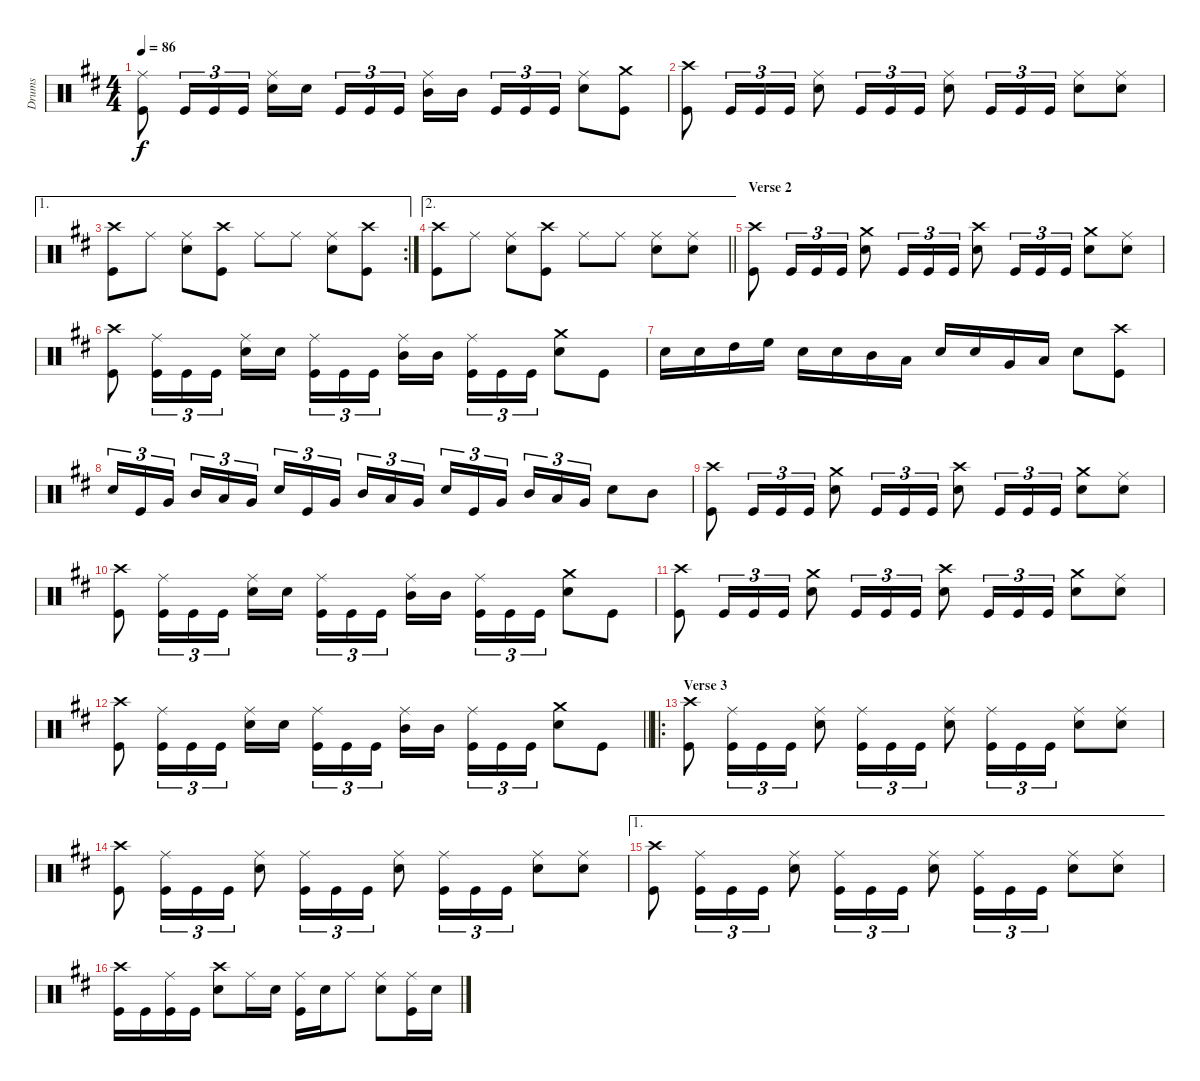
\track ("Drums" "Drums") {instrument percussion}
\staff {score}
\articulation defaults
\ts (4 4)
\tempo 86
\clef neutral
\ks bminor
("Ride (middle)" "Kick (hit)").8{dy f} "Kick (hit)".16{tu (3 2)} "Kick (hit)".16{tu (3 2)} "Kick (hit)".16{tu (3 2)} ("Ride (middle)" "Snare (hit) 2").16 "Snare (hit) 2".16{beam splitsecondary} "Kick (hit)".16{tu (3 2)} "Kick (hit)".16{tu (3 2)} "Kick (hit)".16{tu (3 2)} ("Ride (middle)" "Mid Tom (hit)").16 "Mid Tom (hit)".16{beam splitsecondary} "Kick (hit)".16{tu (3 2)} "Kick (hit)".16{tu (3 2)} "Kick (hit)".16{tu (3 2)} ("Ride (middle)" "Snare (hit) 2").8 ("Crash medium (hit)" "Kick (hit)").8 |
("Crash high (hit)" "Kick (hit)").8 "Kick (hit)".16{tu (3 2)} "Kick (hit)".16{tu (3 2)} "Kick (hit)".16{tu (3 2)} ("Ride (middle)" "Snare (hit) 2").8 "Kick (hit)".16{tu (3 2)} "Kick (hit)".16{tu (3 2)} "Kick (hit)".16{tu (3 2)} ("Ride (middle)" "Snare (hit) 2").8 "Kick (hit)".16{tu (3 2)} "Kick (hit)".16{tu (3 2)} "Kick (hit)".16{tu (3 2)} ("Ride (middle)" "Snare (hit) 2").8 ("Ride (middle)" "Snare (hit) 2").8 |
\ae 1
\rc 2
("Crash high (hit)" "Kick (hit)").8 "Ride (middle)".8 ("Ride (middle)" "Snare (hit) 2").8 ("Crash high (hit)" "Kick (hit)").8 "Ride (middle)".8 "Ride (middle)".8 ("Ride (middle)" "Snare (hit) 2").8 ("Crash high (hit)" "Kick (hit)").8 |
\ae 2
\barLineRight lightlight
("Crash high (hit)" "Kick (hit)").8 "Ride (middle)".8 ("Ride (middle)" "Snare (hit) 2").8 ("Crash high (hit)" "Kick (hit)").8 "Ride (middle)".8 "Ride (middle)".8 ("Ride (middle)" "Snare (hit) 2").8 ("Ride (middle)" "Snare (hit) 2").8 |
\section ("" "Verse 2")
("Crash high (hit)" "Kick (hit)").8 "Kick (hit)".16{tu (3 2)} "Kick (hit)".16{tu (3 2)} "Kick (hit)".16{tu (3 2)} ("Crash medium (hit)" "Snare (hit) 2").8 "Kick (hit)".16{tu (3 2)} "Kick (hit)".16{tu (3 2)} "Kick (hit)".16{tu (3 2)} ("Crash high (hit)" "Snare (hit) 2").8 "Kick (hit)".16{tu (3 2)} "Kick (hit)".16{tu (3 2)} "Kick (hit)".16{tu (3 2)} ("Crash medium (hit)" "Snare (hit) 2").8 ("Ride (middle)" "Snare (hit) 2").8 |
("Crash high (hit)" "Kick (hit)").8 ("Ride (middle)" "Kick (hit)").16{tu (3 2)} "Kick (hit)".16{tu (3 2)} "Kick (hit)".16{tu (3 2)} ("Ride (middle)" "Snare (hit) 2").16 "Snare (hit) 2".16{beam splitsecondary} ("Ride (middle)" "Kick (hit)").16{tu (3 2)} "Kick (hit)".16{tu (3 2)} "Kick (hit)".16{tu (3 2)} ("Ride (middle)" "Mid Tom (hit)").16 "Mid Tom (hit)".16{beam splitsecondary} ("Ride (middle)" "Kick (hit)").16{tu (3 2)} "Kick (hit)".16{tu (3 2)} "Kick (hit)".16{tu (3 2)} ("Crash medium (hit)" "Snare (hit) 2").8 "Kick (hit)".8 |
"Snare (hit) 2".16 "Snare (hit) 2".16 "High Tom (hit)".16 "High Floor Tom (hit)".16 "Snare (hit) 2".16 "Snare (hit) 2".16 "Mid Tom (hit)".16 "Low Tom (hit)".16 "Snare (hit) 2".16 "Snare (hit) 2".16 "Very Low Tom (hit)".16 "Low Floor Tom (hit)".16 "Snare (hit) 2".8 ("Crash high (hit)" "Kick (hit)").8 |
"Snare (hit) 2".16{tu (3 2)} "Kick (hit)".16{tu (3 2)} "Very Low Tom (hit)".16{tu (3 2) beam splitsecondary} "Mid Tom (hit)".16{tu (3 2)} "Low Tom (hit)".16{tu (3 2)} "Very Low Tom (hit)".16{tu (3 2)} "Snare (hit) 2".16{tu (3 2)} "Kick (hit)".16{tu (3 2)} "Very Low Tom (hit)".16{tu (3 2) beam splitsecondary} "Mid Tom (hit)".16{tu (3 2)} "Low Tom (hit)".16{tu (3 2)} "Very Low Tom (hit)".16{tu (3 2)} "Snare (hit) 2".16{tu (3 2)} "Kick (hit)".16{tu (3 2)} "Very Low Tom (hit)".16{tu (3 2) beam splitsecondary} "Mid Tom (hit)".16{tu (3 2)} "Low Tom (hit)".16{tu (3 2)} "Very Low Tom (hit)".16{tu (3 2)} "Snare (hit) 2".8 "Mid Tom (hit)".8 |
("Crash high (hit)" "Kick (hit)").8 "Kick (hit)".16{tu (3 2)} "Kick (hit)".16{tu (3 2)} "Kick (hit)".16{tu (3 2)} ("Crash medium (hit)" "Snare (hit) 2").8 "Kick (hit)".16{tu (3 2)} "Kick (hit)".16{tu (3 2)} "Kick (hit)".16{tu (3 2)} ("Crash high (hit)" "Snare (hit) 2").8 "Kick (hit)".16{tu (3 2)} "Kick (hit)".16{tu (3 2)} "Kick (hit)".16{tu (3 2)} ("Crash medium (hit)" "Snare (hit) 2").8 ("Ride (middle)" "Snare (hit) 2").8 |
("Crash high (hit)" "Kick (hit)").8 ("Ride (middle)" "Kick (hit)").16{tu (3 2)} "Kick (hit)".16{tu (3 2)} "Kick (hit)".16{tu (3 2)} ("Ride (middle)" "Snare (hit) 2").16 "Snare (hit) 2".16{beam splitsecondary} ("Ride (middle)" "Kick (hit)").16{tu (3 2)} "Kick (hit)".16{tu (3 2)} "Kick (hit)".16{tu (3 2)} ("Ride (middle)" "Mid Tom (hit)").16 "Mid Tom (hit)".16{beam splitsecondary} ("Ride (middle)" "Kick (hit)").16{tu (3 2)} "Kick (hit)".16{tu (3 2)} "Kick (hit)".16{tu (3 2)} ("Crash medium (hit)" "Snare (hit) 2").8 "Kick (hit)".8 |
("Crash high (hit)" "Kick (hit)").8 "Kick (hit)".16{tu (3 2)} "Kick (hit)".16{tu (3 2)} "Kick (hit)".16{tu (3 2)} ("Crash medium (hit)" "Snare (hit) 2").8 "Kick (hit)".16{tu (3 2)} "Kick (hit)".16{tu (3 2)} "Kick (hit)".16{tu (3 2)} ("Crash high (hit)" "Snare (hit) 2").8 "Kick (hit)".16{tu (3 2)} "Kick (hit)".16{tu (3 2)} "Kick (hit)".16{tu (3 2)} ("Crash medium (hit)" "Snare (hit) 2").8 ("Ride (middle)" "Snare (hit) 2").8 |
\barLineRight lightlight
("Crash high (hit)" "Kick (hit)").8 ("Ride (middle)" "Kick (hit)").16{tu (3 2)} "Kick (hit)".16{tu (3 2)} "Kick (hit)".16{tu (3 2)} ("Ride (middle)" "Snare (hit) 2").16 "Snare (hit) 2".16{beam splitsecondary} ("Ride (middle)" "Kick (hit)").16{tu (3 2)} "Kick (hit)".16{tu (3 2)} "Kick (hit)".16{tu (3 2)} ("Ride (middle)" "Mid Tom (hit)").16 "Mid Tom (hit)".16{beam splitsecondary} ("Ride (middle)" "Kick (hit)").16{tu (3 2)} "Kick (hit)".16{tu (3 2)} "Kick (hit)".16{tu (3 2)} ("Crash medium (hit)" "Snare (hit) 2").8 "Kick (hit)".8 |
\ro
\section ("" "Verse 3")
("Crash high (hit)" "Kick (hit)").8 ("Ride (middle)" "Kick (hit)").16{tu (3 2)} "Kick (hit)".16{tu (3 2)} "Kick (hit)".16{tu (3 2)} ("Ride (middle)" "Snare (hit) 2").8 ("Ride (middle)" "Kick (hit)").16{tu (3 2)} "Kick (hit)".16{tu (3 2)} "Kick (hit)".16{tu (3 2)} ("Ride (middle)" "Snare (hit) 2").8 ("Ride (middle)" "Kick (hit)").16{tu (3 2)} "Kick (hit)".16{tu (3 2)} "Kick (hit)".16{tu (3 2)} ("Ride (middle)" "Snare (hit) 2").8 ("Ride (middle)" "Snare (hit) 2").8 |
("Crash high (hit)" "Kick (hit)").8 ("Ride (middle)" "Kick (hit)").16{tu (3 2)} "Kick (hit)".16{tu (3 2)} "Kick (hit)".16{tu (3 2)} ("Ride (middle)" "Snare (hit) 2").8 ("Ride (middle)" "Kick (hit)").16{tu (3 2)} "Kick (hit)".16{tu (3 2)} "Kick (hit)".16{tu (3 2)} ("Ride (middle)" "Snare (hit) 2").8 ("Ride (middle)" "Kick (hit)").16{tu (3 2)} "Kick (hit)".16{tu (3 2)} "Kick (hit)".16{tu (3 2)} ("Ride (middle)" "Snare (hit) 2").8 ("Ride (middle)" "Snare (hit) 2").8 |
\ae 1
("Crash high (hit)" "Kick (hit)").8 ("Ride (middle)" "Kick (hit)").16{tu (3 2)} "Kick (hit)".16{tu (3 2)} "Kick (hit)".16{tu (3 2)} ("Ride (middle)" "Snare (hit) 2").8 ("Ride (middle)" "Kick (hit)").16{tu (3 2)} "Kick (hit)".16{tu (3 2)} "Kick (hit)".16{tu (3 2)} ("Ride (middle)" "Snare (hit) 2").8 ("Ride (middle)" "Kick (hit)").16{tu (3 2)} "Kick (hit)".16{tu (3 2)} "Kick (hit)".16{tu (3 2)} ("Ride (middle)" "Snare (hit) 2").8 ("Ride (middle)" "Snare (hit) 2").8 |
("Crash high (hit)" "Kick (hit)").16 "Kick (hit)".16 ("Ride (middle)" "Kick (hit)").16 "Kick (hit)".16 ("Crash high (hit)" "Snare (hit) 2").8 "Ride (middle)".16 "Snare (hit) 2".16 ("Ride (middle)" "Kick (hit)").16 "Snare (hit) 2".16 "Ride (middle)".8 ("Ride (middle)" "Snare (hit) 2").8 ("Ride (middle)" "Kick (hit)").16 "Snare (hit) 2".16
